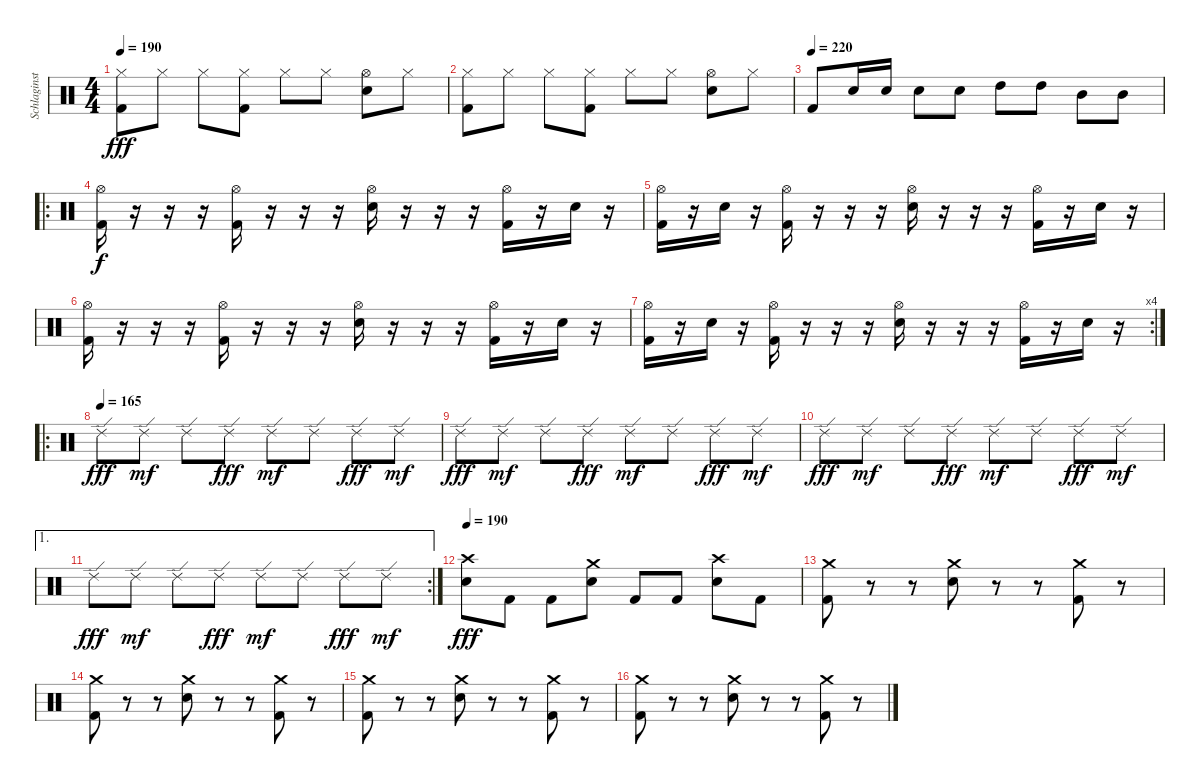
\track ("Schlaginstrumente - Auswahl" "Schlaginst") {instrument percussion}
\staff {score}
\articulation defaults
\ts (4 4)
\tempo 190
\clef neutral
\ks c
("Hi-Hat (closed)" "Kick (hit) 2").8{dy fff} "Hi-Hat (closed)".8 "Hi-Hat (closed)".8 ("Hi-Hat (closed)" "Kick (hit) 2").8 "Hi-Hat (closed)".8 "Hi-Hat (closed)".8 ("Hi-Hat (open)" "Electric Snare (hit)").8 "Hi-Hat (closed)".8 |
("Hi-Hat (closed)" "Kick (hit) 2").8 "Hi-Hat (closed)".8 "Hi-Hat (closed)".8 ("Hi-Hat (closed)" "Kick (hit) 2").8 "Hi-Hat (closed)".8 "Hi-Hat (closed)".8 ("Hi-Hat (open)" "Electric Snare (hit)").8 "Hi-Hat (closed)".8 |
\tempo (220)
"Kick (hit) 2".8 "Electric Snare (hit)".16 "Electric Snare (hit)".16 "Electric Snare (hit)".8 "Electric Snare (hit)".8 "High Tom (hit)".8 "High Tom (hit)".8 "Mid Tom (hit)".8 "Mid Tom (hit)".8 |
\ro
("Hi-Hat (open)" "Kick (hit) 2").16{dy f} r.16 r.16 r.16 ("Hi-Hat (open)" "Kick (hit) 2").16 r.16 r.16 r.16 ("Hi-Hat (open)" "Electric Snare (hit)").16 r.16 r.16 r.16 ("Hi-Hat (open)" "Kick (hit) 2").16 r.16 "Electric Snare (hit)".16 r.16 |
("Hi-Hat (open)" "Kick (hit) 2").16 r.16 "Electric Snare (hit)".16 r.16 ("Hi-Hat (open)" "Kick (hit) 2").16 r.16 r.16 r.16 ("Hi-Hat (open)" "Electric Snare (hit)").16 r.16 r.16 r.16 ("Hi-Hat (open)" "Kick (hit) 2").16 r.16 "Electric Snare (hit)".16 r.16 |
("Hi-Hat (open)" "Kick (hit) 2").16 r.16 r.16 r.16 ("Hi-Hat (open)" "Kick (hit) 2").16 r.16 r.16 r.16 ("Hi-Hat (open)" "Electric Snare (hit)").16 r.16 r.16 r.16 ("Hi-Hat (open)" "Kick (hit) 2").16 r.16 "Electric Snare (hit)".16 r.16 |
\rc 4
("Hi-Hat (open)" "Kick (hit) 2").16 r.16 "Electric Snare (hit)".16 r.16 ("Hi-Hat (open)" "Kick (hit) 2").16 r.16 r.16 r.16 ("Hi-Hat (open)" "Electric Snare (hit)").16 r.16 r.16 r.16 ("Hi-Hat (open)" "Kick (hit) 2").16 r.16 "Electric Snare (hit)".16 r.16 |
\ro
\tempo (165)
"Ride (edge) 2".8{dy fff} "Ride (edge) 2".8{dy mf} "Ride (edge) 2".8 "Ride (edge) 2".8{dy fff} "Ride (edge) 2".8{dy mf} "Ride (edge) 2".8 "Ride (edge) 2".8{dy fff} "Ride (edge) 2".8{dy mf} |
"Ride (edge) 2".8{dy fff} "Ride (edge) 2".8{dy mf} "Ride (edge) 2".8 "Ride (edge) 2".8{dy fff} "Ride (edge) 2".8{dy mf} "Ride (edge) 2".8 "Ride (edge) 2".8{dy fff} "Ride (edge) 2".8{dy mf} |
"Ride (edge) 2".8{dy fff} "Ride (edge) 2".8{dy mf} "Ride (edge) 2".8 "Ride (edge) 2".8{dy fff} "Ride (edge) 2".8{dy mf} "Ride (edge) 2".8 "Ride (edge) 2".8{dy fff} "Ride (edge) 2".8{dy mf} |
\ae 1
\rc 2 "Ride (edge) 2".8{dy fff} "Ride (edge) 2".8{dy mf} "Ride (edge) 2".8 "Ride (edge) 2".8{dy fff} "Ride (edge) 2".8{dy mf} "Ride (edge) 2".8 "Ride (edge) 2".8{dy fff} "Ride (edge) 2".8{dy mf}
|
\tempo 190
("Crash high (hit)" "Electric Snare (hit)").8{dy fff} "Kick (hit) 2".8 "Kick (hit) 2".8 ("Crash medium (hit)" "Electric Snare (hit)").8 "Kick (hit) 2".8 "Kick (hit) 2".8 ("Crash high (hit)" "Electric Snare (hit)").8 "Kick (hit) 2".8 |
("Crash medium (hit)" "Kick (hit) 2").8 r.8 r.8 ("Crash medium (hit)" "Electric Snare (hit)").8 r.8 r.8 ("Crash medium (hit)" "Kick (hit) 2").8 r.8 |
("Crash medium (hit)" "Kick (hit) 2").8 r.8 r.8 ("Crash medium (hit)" "Electric Snare (hit)").8 r.8 r.8 ("Crash medium (hit)" "Kick (hit) 2").8 r.8 |
("Crash medium (hit)" "Kick (hit) 2").8 r.8 r.8 ("Crash medium (hit)" "Electric Snare (hit)").8 r.8 r.8 ("Crash medium (hit)" "Kick (hit) 2").8 r.8 |
("Crash medium (hit)" "Kick (hit) 2").8 r.8 r.8 ("Crash medium (hit)" "Electric Snare (hit)").8 r.8 r.8 ("Crash medium (hit)" "Kick (hit) 2").8 r.8
